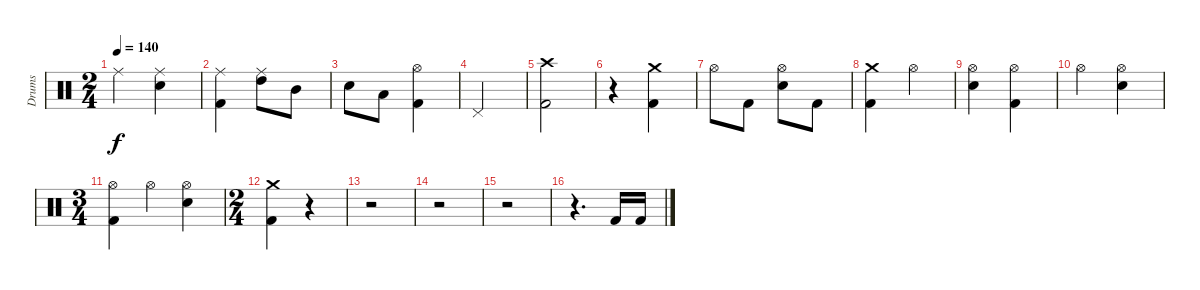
\track ("Drums" "Drums") {instrument percussion}
\staff {score}
\articulation defaults
\ts (2 4)
\tempo 140
\clef neutral
\ks c "Ride (middle)".4{dy f}
("Electric Snare (hit)" "Ride (middle)").4 |
("Kick (hit) 2" "Ride (middle)").4 ("High Tom (hit)" "Ride (middle)").8 "Mid Tom (hit)".8 |
"Electric Snare (hit)".8 "Low Tom (hit)".8 ("Kick (hit) 2" "Hi-Hat (open)").4 |
"Pedal Hi-Hat (hit)".2 |
("Kick (hit) 2" "Crash high (hit)").2 |
r.4 ("Kick (hit) 2" "Crash medium (hit)").4 |
"Hi-Hat (open)".8 "Kick (hit) 2".8 ("Electric Snare (hit)" "Hi-Hat (open)").8 "Kick (hit) 2".8 |
("Kick (hit) 2" "Crash medium (hit)").4 "Hi-Hat (open)".4 |
("Electric Snare (hit)" "Hi-Hat (open)").4 ("Kick (hit) 2" "Hi-Hat (open)").4 |
"Hi-Hat (open)".4 ("Electric Snare (hit)" "Hi-Hat (open)").4 |
\ts (3 4)
("Kick (hit) 2" "Hi-Hat (open)").4 "Hi-Hat (open)".4 ("Electric Snare (hit)" "Hi-Hat (open)").4 |
\ts (2 4)
("Kick (hit) 2" "Crash medium (hit)").4 r.4 |
r.2 |
r.2 |
r.2 |
r.4{d} "Kick (hit) 2".16 "Kick (hit) 2".16
